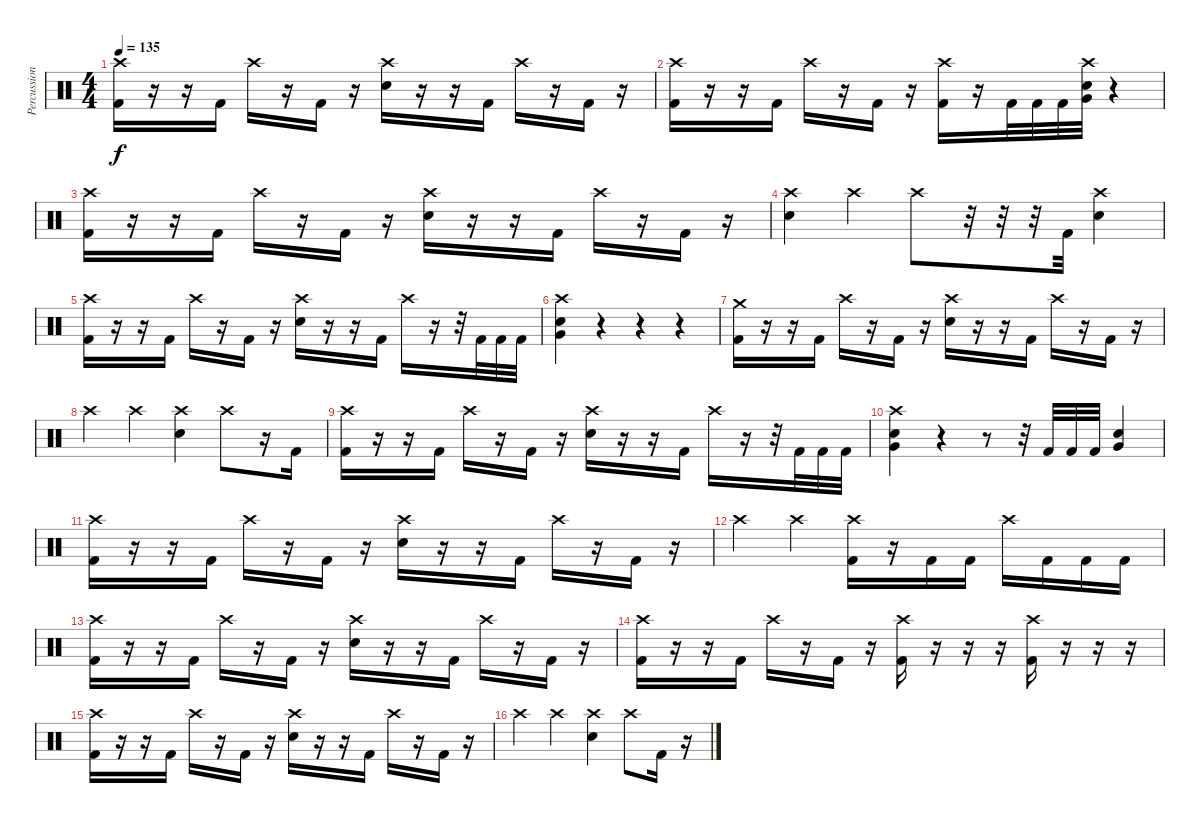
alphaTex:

\track ("Percussions" "Percussion") {instrument percussion}
\staff {score}
\articulation defaults
\ts (4 4)
\tempo 135
\clef neutral
\ks c
("Crash high (hit)" "Kick (hit) 2").16{dy f} r.16 r.16 "Kick (hit) 2".16 "Crash high (hit)".16 r.16 "Kick (hit) 2".16 r.16 ("Crash high (hit)" "Electric Snare (hit)").16 r.16 r.16 "Kick (hit) 2".16 "Crash high (hit)".16 r.16 "Kick (hit) 2".16 r.16 |
("Crash high (hit)" "Kick (hit) 2").16 r.16 r.16 "Kick (hit) 2".16 "Crash high (hit)".16 r.16 "Kick (hit) 2".16 r.16 ("Crash high (hit)" "Kick (hit) 2").16 r.16 "Kick (hit) 2".32 "Kick (hit) 2".32 "Kick (hit) 2".32 ("Crash high (hit)" "Very Low Tom (hit)" "Electric Snare (hit)").32 r.4 |
("Crash high (hit)" "Kick (hit) 2").16 r.16 r.16 "Kick (hit) 2".16 "Crash high (hit)".16 r.16 "Kick (hit) 2".16 r.16 ("Crash high (hit)" "Electric Snare (hit)").16 r.16 r.16 "Kick (hit) 2".16 "Crash high (hit)".16 r.16 "Kick (hit) 2".16 r.16 |
("Crash high (hit)" "Electric Snare (hit)").4 "Crash high (hit)".4 "Crash high (hit)".8 r.32 r.32 r.32 "Kick (hit) 2".32 ("Crash high (hit)" "Electric Snare (hit)").4 |
("Crash high (hit)" "Kick (hit) 2").16 r.16 r.16 "Kick (hit) 2".16 "Crash high (hit)".16 r.16 "Kick (hit) 2".16 r.16 ("Crash high (hit)" "Electric Snare (hit)").16 r.16 r.16 "Kick (hit) 2".16 "Crash high (hit)".16 r.16 r.32 "Kick (hit) 2".32 "Kick (hit) 2".32 "Kick (hit) 2".32 |
("Crash high (hit)" "Very Low Tom (hit)" "Electric Snare (hit)").4 r.4 r.4 r.4 |
("Crash medium (hit)" "Kick (hit) 2").16 r.16 r.16 "Kick (hit) 2".16 "Crash high (hit)".16 r.16 "Kick (hit) 2".16 r.16 ("Crash high (hit)" "Electric Snare (hit)").16 r.16 r.16 "Kick (hit) 2".16 "Crash high (hit)".16 r.16 "Kick (hit) 2".16 r.16 |
"Crash high (hit)".4 "Crash high (hit)".4 ("Crash high (hit)" "Electric Snare (hit)").4 "Crash high (hit)".8 r.16 "Kick (hit) 2".16 |
("Crash high (hit)" "Kick (hit) 2").16 r.16 r.16 "Kick (hit) 2".16 "Crash high (hit)".16 r.16 "Kick (hit) 2".16 r.16 ("Crash high (hit)" "Electric Snare (hit)").16 r.16 r.16 "Kick (hit) 2".16 "Crash high (hit)".16 r.16 r.32 "Kick (hit) 2".32 "Kick (hit) 2".32 "Kick (hit) 2".32 |
("Crash high (hit)" "Very Low Tom (hit)" "Electric Snare (hit)").4 r.4 r.8 r.32 "Kick (hit) 2".32 "Kick (hit) 2".32 "Kick (hit) 2".32 ("Very Low Tom (hit)" "Electric Snare (hit)").4 |
("Crash high (hit)" "Kick (hit) 2").16 r.16 r.16 "Kick (hit) 2".16 "Crash high (hit)".16 r.16 "Kick (hit) 2".16 r.16 ("Crash high (hit)" "Electric Snare (hit)").16 r.16 r.16 "Kick (hit) 2".16 "Crash high (hit)".16 r.16 "Kick (hit) 2".16 r.16 |
"Crash high (hit)".4 "Crash high (hit)".4 ("Crash high (hit)" "Kick (hit) 2").16 r.16 "Kick (hit) 2".16 "Kick (hit) 2".16 "Crash high (hit)".16 "Kick (hit) 2".16 "Kick (hit) 2".16 "Kick (hit) 2".16 |
("Crash high (hit)" "Kick (hit) 2").16 r.16 r.16 "Kick (hit) 2".16 "Crash high (hit)".16 r.16 "Kick (hit) 2".16 r.16 ("Crash high (hit)" "Electric Snare (hit)").16 r.16 r.16 "Kick (hit) 2".16 "Crash high (hit)".16 r.16 "Kick (hit) 2".16 r.16 |
("Crash high (hit)" "Kick (hit) 2").16 r.16 r.16 "Kick (hit) 2".16 "Crash high (hit)".16 r.16 "Kick (hit) 2".16 r.16 ("Crash high (hit)" "Kick (hit) 2").16 r.16 r.16 r.16 ("Crash high (hit)" "Kick (hit) 2").16 r.16 r.16 r.16 |
("Crash high (hit)" "Kick (hit) 2").16 r.16 r.16 "Kick (hit) 2".16 "Crash high (hit)".16 r.16 "Kick (hit) 2".16 r.16 ("Crash high (hit)" "Electric Snare (hit)").16 r.16 r.16 "Kick (hit) 2".16 "Crash high (hit)".16 r.16 "Kick (hit) 2".16 r.16 |
"Crash high (hit)".4 "Crash high (hit)".4 ("Crash high (hit)" "Electric Snare (hit)").4 "Crash high (hit)".8 "Kick (hit) 2".16 r.16
